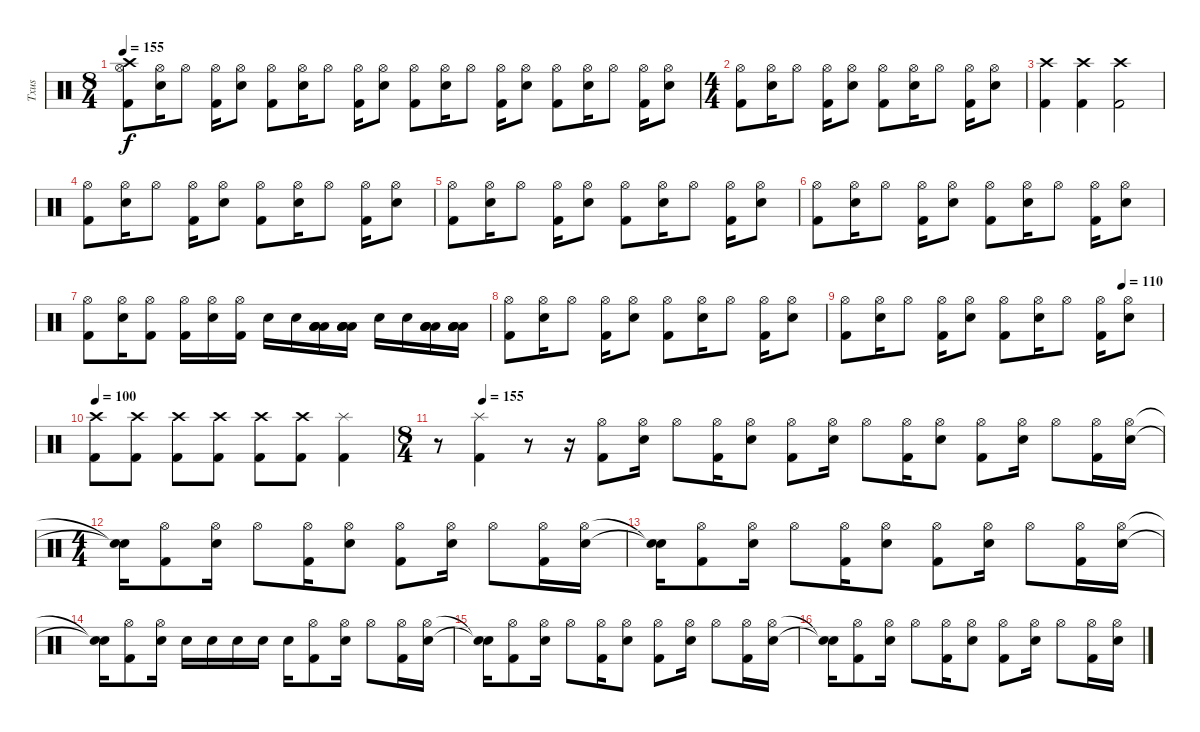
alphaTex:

\track ("Txus" "Txus") {instrument percussion}
\staff {score}
\articulation defaults
\ts (8 4)
\tempo 155
\clef neutral
\ks c
("Kick (hit) 2" "Hi-Hat (open)" "Crash high (hit)").8{dy f} ("Snare (hit) 2" "Hi-Hat (open)").16 "Hi-Hat (open)".8 ("Kick (hit) 2" "Hi-Hat (open)").16 ("Snare (hit) 2" "Hi-Hat (open)").8 ("Kick (hit) 2" "Hi-Hat (open)").8 ("Snare (hit) 2" "Hi-Hat (open)").16 "Hi-Hat (open)".8 ("Kick (hit) 2" "Hi-Hat (open)").16 ("Snare (hit) 2" "Hi-Hat (open)").8 ("Kick (hit) 2" "Hi-Hat (open)").8 ("Snare (hit) 2" "Hi-Hat (open)").16 "Hi-Hat (open)".8 ("Kick (hit) 2" "Hi-Hat (open)").16 ("Snare (hit) 2" "Hi-Hat (open)").8 ("Kick (hit) 2" "Hi-Hat (open)").8 ("Snare (hit) 2" "Hi-Hat (open)").16 "Hi-Hat (open)".8 ("Kick (hit) 2" "Hi-Hat (open)").16 ("Snare (hit) 2" "Hi-Hat (open)").8 |
\ts (4 4)
("Kick (hit) 2" "Hi-Hat (open)").8 ("Snare (hit) 2" "Hi-Hat (open)").16 "Hi-Hat (open)".8 ("Kick (hit) 2" "Hi-Hat (open)").16 ("Snare (hit) 2" "Hi-Hat (open)").8 ("Kick (hit) 2" "Hi-Hat (open)").8 ("Snare (hit) 2" "Hi-Hat (open)").16 "Hi-Hat (open)".8 ("Kick (hit) 2" "Hi-Hat (open)").16 ("Snare (hit) 2" "Hi-Hat (open)").8 |
("Crash high (hit)" "Kick (hit) 2").4 ("Crash high (hit)" "Kick (hit) 2").4 ("Kick (hit) 2" "Crash high (hit)").2 |
("Kick (hit) 2" "Hi-Hat (open)").8 ("Snare (hit) 2" "Hi-Hat (open)").16 "Hi-Hat (open)".8 ("Kick (hit) 2" "Hi-Hat (open)").16 ("Snare (hit) 2" "Hi-Hat (open)").8 ("Kick (hit) 2" "Hi-Hat (open)").8 ("Snare (hit) 2" "Hi-Hat (open)").16 "Hi-Hat (open)".8 ("Kick (hit) 2" "Hi-Hat (open)").16 ("Snare (hit) 2" "Hi-Hat (open)").8 |
("Kick (hit) 2" "Hi-Hat (open)").8 ("Snare (hit) 2" "Hi-Hat (open)").16 "Hi-Hat (open)".8 ("Kick (hit) 2" "Hi-Hat (open)").16 ("Snare (hit) 2" "Hi-Hat (open)").8 ("Kick (hit) 2" "Hi-Hat (open)").8 ("Snare (hit) 2" "Hi-Hat (open)").16 "Hi-Hat (open)".8 ("Kick (hit) 2" "Hi-Hat (open)").16 ("Snare (hit) 2" "Hi-Hat (open)").8 |
("Kick (hit) 2" "Hi-Hat (open)").8 ("Snare (hit) 2" "Hi-Hat (open)").16 "Hi-Hat (open)".8 ("Kick (hit) 2" "Hi-Hat (open)").16 ("Snare (hit) 2" "Hi-Hat (open)").8 ("Kick (hit) 2" "Hi-Hat (open)").8 ("Snare (hit) 2" "Hi-Hat (open)").16 "Hi-Hat (open)".8 ("Kick (hit) 2" "Hi-Hat (open)").16 ("Snare (hit) 2" "Hi-Hat (open)").8 |
("Hi-Hat (open)" "Kick (hit) 2").8 ("Hi-Hat (open)" "Snare (hit) 2").16 ("Hi-Hat (open)" "Kick (hit) 2").8 ("Hi-Hat (open)" "Kick (hit) 2").16 ("Hi-Hat (open)" "Snare (hit) 2").16 ("Hi-Hat (open)" "Kick (hit) 2").16 "Snare (hit) 2".16 "Snare (hit) 2".16 ("Low Tom (hit)" "Low Tom (hit)" "Low Tom (hit)" "Low Tom (hit)").16 ("Low Tom (hit)" "Low Tom (hit)" "Low Tom (hit)" "Low Tom (hit)").16 "Snare (hit) 2".16 "Snare (hit) 2".16 ("Low Tom (hit)" "Low Tom (hit)" "Low Tom (hit)" "Low Tom (hit)").16 ("Low Tom (hit)" "Low Tom (hit)" "Low Tom (hit)" "Low Tom (hit)").16 |
("Kick (hit) 2" "Hi-Hat (open)").8 ("Snare (hit) 2" "Hi-Hat (open)").16 "Hi-Hat (open)".8 ("Kick (hit) 2" "Hi-Hat (open)").16 ("Snare (hit) 2" "Hi-Hat (open)").8 ("Kick (hit) 2" "Hi-Hat (open)").8 ("Snare (hit) 2" "Hi-Hat (open)").16 "Hi-Hat (open)".8 ("Kick (hit) 2" "Hi-Hat (open)").16 ("Snare (hit) 2" "Hi-Hat (open)").8 |
\tempo (110 0.875)
("Kick (hit) 2" "Hi-Hat (open)").8 ("Snare (hit) 2" "Hi-Hat (open)").16 "Hi-Hat (open)".8 ("Kick (hit) 2" "Hi-Hat (open)").16 ("Snare (hit) 2" "Hi-Hat (open)").8 ("Kick (hit) 2" "Hi-Hat (open)").8 ("Snare (hit) 2" "Hi-Hat (open)").16 "Hi-Hat (open)".8 ("Kick (hit) 2" "Hi-Hat (open)").16 ("Snare (hit) 2" "Hi-Hat (open)").8 |
\tempo 100
("Kick (hit) 2" "Crash high (hit)").8 ("Kick (hit) 2" "Crash high (hit)").8 ("Kick (hit) 2" "Crash high (hit)").8 ("Kick (hit) 2" "Crash high (hit)").8 ("Kick (hit) 2" "Crash high (hit)").8 ("Kick (hit) 2" "Crash high (hit)").8 ("Kick (hit) 2" "Splash (hit)").4 |
\ts (8 4)
\tempo (155 0.0625)
r.8 ("Kick (hit) 2" "Splash (hit)").4 r.8 r.16 ("Kick (hit) 2" "Hi-Hat (open)").8 ("Snare (hit) 2" "Hi-Hat (open)").16 "Hi-Hat (open)".8 ("Kick (hit) 2" "Hi-Hat (open)").16 ("Snare (hit) 2" "Hi-Hat (open)").8 ("Kick (hit) 2" "Hi-Hat (open)").8 ("Snare (hit) 2" "Hi-Hat (open)").16 "Hi-Hat (open)".8 ("Kick (hit) 2" "Hi-Hat (open)").16 ("Snare (hit) 2" "Hi-Hat (open)").8 ("Kick (hit) 2" "Hi-Hat (open)").8 ("Snare (hit) 2" "Hi-Hat (open)").16 "Hi-Hat (open)".8 ("Kick (hit) 2" "Hi-Hat (open)").16 ("Snare (hit) 2" "Hi-Hat (open)").16 |
\ts (4 4)
("Snare (hit)"{t} "Snare (hit)"{t}).16 ("Kick (hit) 2" "Hi-Hat (open)").8 ("Snare (hit) 2" "Hi-Hat (open)").16 "Hi-Hat (open)".8 ("Kick (hit) 2" "Hi-Hat (open)").16 ("Snare (hit) 2" "Hi-Hat (open)").8 ("Kick (hit) 2" "Hi-Hat (open)").8 ("Snare (hit) 2" "Hi-Hat (open)").16 "Hi-Hat (open)".8 ("Kick (hit) 2" "Hi-Hat (open)").16 ("Snare (hit) 2" "Hi-Hat (open)").16 |
("Snare (hit)"{t} "Snare (hit)"{t}).16 ("Kick (hit) 2" "Hi-Hat (open)").8 ("Snare (hit) 2" "Hi-Hat (open)").16 "Hi-Hat (open)".8 ("Kick (hit) 2" "Hi-Hat (open)").16 ("Snare (hit) 2" "Hi-Hat (open)").8 ("Kick (hit) 2" "Hi-Hat (open)").8 ("Snare (hit) 2" "Hi-Hat (open)").16 "Hi-Hat (open)".8 ("Kick (hit) 2" "Hi-Hat (open)").16 ("Snare (hit) 2" "Hi-Hat (open)").16 |
("Snare (hit)"{t} "Snare (hit)"{t}).16 ("Kick (hit) 2" "Hi-Hat (open)").8 ("Snare (hit) 2" "Hi-Hat (open)").16 "Snare (hit) 2".16 "Snare (hit) 2".16 "Snare (hit) 2".16 "Snare (hit) 2".16 "Snare (hit) 2".16 ("Kick (hit) 2" "Hi-Hat (open)").8 ("Snare (hit) 2" "Hi-Hat (open)").16 "Hi-Hat (open)".8 ("Kick (hit) 2" "Hi-Hat (open)").16 ("Snare (hit) 2" "Hi-Hat (open)").16 |
("Snare (hit)"{t} "Snare (hit)"{t}).16 ("Kick (hit) 2" "Hi-Hat (open)").8 ("Snare (hit) 2" "Hi-Hat (open)").16 "Hi-Hat (open)".8 ("Kick (hit) 2" "Hi-Hat (open)").16 ("Snare (hit) 2" "Hi-Hat (open)").8 ("Kick (hit) 2" "Hi-Hat (open)").8 ("Snare (hit) 2" "Hi-Hat (open)").16 "Hi-Hat (open)".8 ("Kick (hit) 2" "Hi-Hat (open)").16 ("Snare (hit) 2" "Hi-Hat (open)").16 |
("Snare (hit)"{t} "Snare (hit)"{t}).16 ("Kick (hit) 2" "Hi-Hat (open)").8 ("Snare (hit) 2" "Hi-Hat (open)").16 "Hi-Hat (open)".8 ("Kick (hit) 2" "Hi-Hat (open)").16 ("Snare (hit) 2" "Hi-Hat (open)").8 ("Kick (hit) 2" "Hi-Hat (open)").8 ("Snare (hit) 2" "Hi-Hat (open)").16 "Hi-Hat (open)".8 ("Kick (hit) 2" "Hi-Hat (open)").16 ("Snare (hit) 2" "Hi-Hat (open)").16
